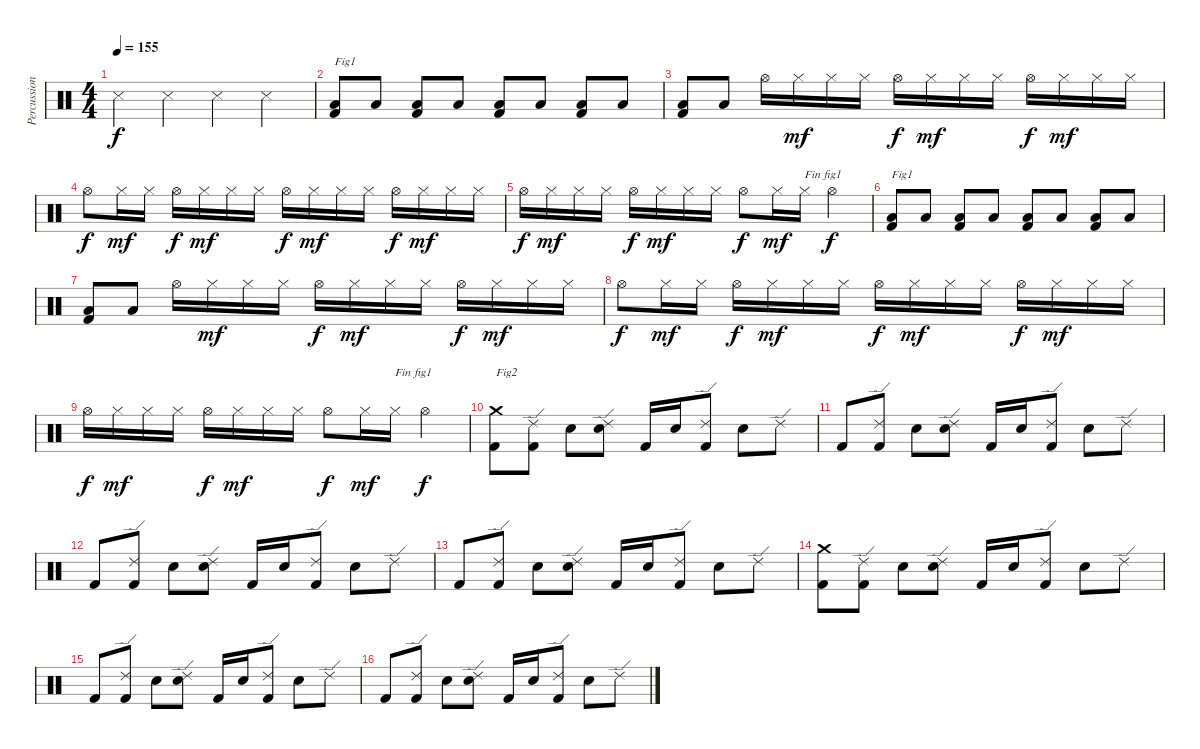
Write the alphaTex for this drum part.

\track ("Percussions" "Percussion") {instrument percussion}
\staff {score}
\articulation defaults
\ts (4 4)
\tempo 155
\clef neutral
\ks c "Metronome (hit)".4{dy f} "Metronome (hit)".4 "Metronome (hit)".4 "Metronome (hit)".4
|
("Kick (hit) 2" "Low Floor Tom (hit)").8{txt "Fig1"} "Low Floor Tom (hit)".8 ("Kick (hit) 2" "Low Floor Tom (hit)").8 "Low Floor Tom (hit)".8 ("Kick (hit) 2" "Low Floor Tom (hit)").8 "Low Floor Tom (hit)".8 ("Kick (hit) 2" "Low Floor Tom (hit)").8 "Low Floor Tom (hit)".8 |
("Kick (hit) 2" "Low Floor Tom (hit)").8 "Low Floor Tom (hit)".8 "Hi-Hat (open)".16 "Hi-Hat (closed)".16{dy mf} "Hi-Hat (closed)".16 "Hi-Hat (closed)".16 "Hi-Hat (open)".16{dy f} "Hi-Hat (closed)".16{dy mf} "Hi-Hat (closed)".16 "Hi-Hat (closed)".16 "Hi-Hat (open)".16{dy f} "Hi-Hat (closed)".16{dy mf} "Hi-Hat (closed)".16 "Hi-Hat (closed)".16 |
"Hi-Hat (open)".8{dy f} "Hi-Hat (closed)".16{dy mf} "Hi-Hat (closed)".16 "Hi-Hat (open)".16{dy f} "Hi-Hat (closed)".16{dy mf} "Hi-Hat (closed)".16 "Hi-Hat (closed)".16 "Hi-Hat (open)".16{dy f} "Hi-Hat (closed)".16{dy mf} "Hi-Hat (closed)".16 "Hi-Hat (closed)".16 "Hi-Hat (open)".16{dy f} "Hi-Hat (closed)".16{dy mf} "Hi-Hat (closed)".16 "Hi-Hat (closed)".16 |
"Hi-Hat (open)".16{dy f} "Hi-Hat (closed)".16{dy mf} "Hi-Hat (closed)".16 "Hi-Hat (closed)".16 "Hi-Hat (open)".16{dy f} "Hi-Hat (closed)".16{dy mf} "Hi-Hat (closed)".16 "Hi-Hat (closed)".16 "Hi-Hat (open)".8{dy f} "Hi-Hat (closed)".16{dy mf} "Hi-Hat (closed)".16{txt "Fin fig1"} "Hi-Hat (open)".4{dy f} |
("Kick (hit) 2" "Low Floor Tom (hit)").8{txt "Fig1"} "Low Floor Tom (hit)".8 ("Kick (hit) 2" "Low Floor Tom (hit)").8 "Low Floor Tom (hit)".8 ("Kick (hit) 2" "Low Floor Tom (hit)").8 "Low Floor Tom (hit)".8 ("Kick (hit) 2" "Low Floor Tom (hit)").8 "Low Floor Tom (hit)".8 |
("Kick (hit) 2" "Low Floor Tom (hit)").8 "Low Floor Tom (hit)".8 "Hi-Hat (open)".16 "Hi-Hat (closed)".16{dy mf} "Hi-Hat (closed)".16 "Hi-Hat (closed)".16 "Hi-Hat (open)".16{dy f} "Hi-Hat (closed)".16{dy mf} "Hi-Hat (closed)".16 "Hi-Hat (closed)".16 "Hi-Hat (open)".16{dy f} "Hi-Hat (closed)".16{dy mf} "Hi-Hat (closed)".16 "Hi-Hat (closed)".16 |
"Hi-Hat (open)".8{dy f} "Hi-Hat (closed)".16{dy mf} "Hi-Hat (closed)".16 "Hi-Hat (open)".16{dy f} "Hi-Hat (closed)".16{dy mf} "Hi-Hat (closed)".16 "Hi-Hat (closed)".16 "Hi-Hat (open)".16{dy f} "Hi-Hat (closed)".16{dy mf} "Hi-Hat (closed)".16 "Hi-Hat (closed)".16 "Hi-Hat (open)".16{dy f} "Hi-Hat (closed)".16{dy mf} "Hi-Hat (closed)".16 "Hi-Hat (closed)".16 |
"Hi-Hat (open)".16{dy f} "Hi-Hat (closed)".16{dy mf} "Hi-Hat (closed)".16 "Hi-Hat (closed)".16 "Hi-Hat (open)".16{dy f} "Hi-Hat (closed)".16{dy mf} "Hi-Hat (closed)".16 "Hi-Hat (closed)".16 "Hi-Hat (open)".8{dy f} "Hi-Hat (closed)".16{dy mf} "Hi-Hat (closed)".16{txt "Fin fig1"} "Hi-Hat (open)".4{dy f} |
("Kick (hit) 2" "Crash medium (hit)").8{txt "Fig2"} ("Kick (hit) 2" "Ride (edge) 2").8 "Electric Snare (hit)".8 ("Electric Snare (hit)" "Ride (edge) 2").8 "Kick (hit) 2".16 "Electric Snare (hit)".16 ("Kick (hit) 2" "Ride (edge) 2").8 "Electric Snare (hit)".8 "Ride (edge) 2".8 |
"Kick (hit) 2".8 ("Kick (hit) 2" "Ride (edge) 2").8 "Electric Snare (hit)".8 ("Electric Snare (hit)" "Ride (edge) 2").8 "Kick (hit) 2".16 "Electric Snare (hit)".16 ("Kick (hit) 2" "Ride (edge) 2").8 "Electric Snare (hit)".8 "Ride (edge) 2".8 |
"Kick (hit) 2".8 ("Kick (hit) 2" "Ride (edge) 2").8 "Electric Snare (hit)".8 ("Electric Snare (hit)" "Ride (edge) 2").8 "Kick (hit) 2".16 "Electric Snare (hit)".16 ("Kick (hit) 2" "Ride (edge) 2").8 "Electric Snare (hit)".8 "Ride (edge) 2".8 |
"Kick (hit) 2".8 ("Kick (hit) 2" "Ride (edge) 2").8 "Electric Snare (hit)".8 ("Electric Snare (hit)" "Ride (edge) 2").8 "Kick (hit) 2".16 "Electric Snare (hit)".16 ("Kick (hit) 2" "Ride (edge) 2").8 "Electric Snare (hit)".8 "Ride (edge) 2".8 |
("Kick (hit) 2" "Crash medium (hit)").8 ("Kick (hit) 2" "Ride (edge) 2").8 "Electric Snare (hit)".8 ("Electric Snare (hit)" "Ride (edge) 2").8 "Kick (hit) 2".16 "Electric Snare (hit)".16 ("Kick (hit) 2" "Ride (edge) 2").8 "Electric Snare (hit)".8 "Ride (edge) 2".8 |
"Kick (hit) 2".8 ("Kick (hit) 2" "Ride (edge) 2").8 "Electric Snare (hit)".8 ("Electric Snare (hit)" "Ride (edge) 2").8 "Kick (hit) 2".16 "Electric Snare (hit)".16 ("Kick (hit) 2" "Ride (edge) 2").8 "Electric Snare (hit)".8 "Ride (edge) 2".8 |
"Kick (hit) 2".8 ("Kick (hit) 2" "Ride (edge) 2").8 "Electric Snare (hit)".8 ("Electric Snare (hit)" "Ride (edge) 2").8 "Kick (hit) 2".16 "Electric Snare (hit)".16 ("Kick (hit) 2" "Ride (edge) 2").8 "Electric Snare (hit)".8 "Ride (edge) 2".8
